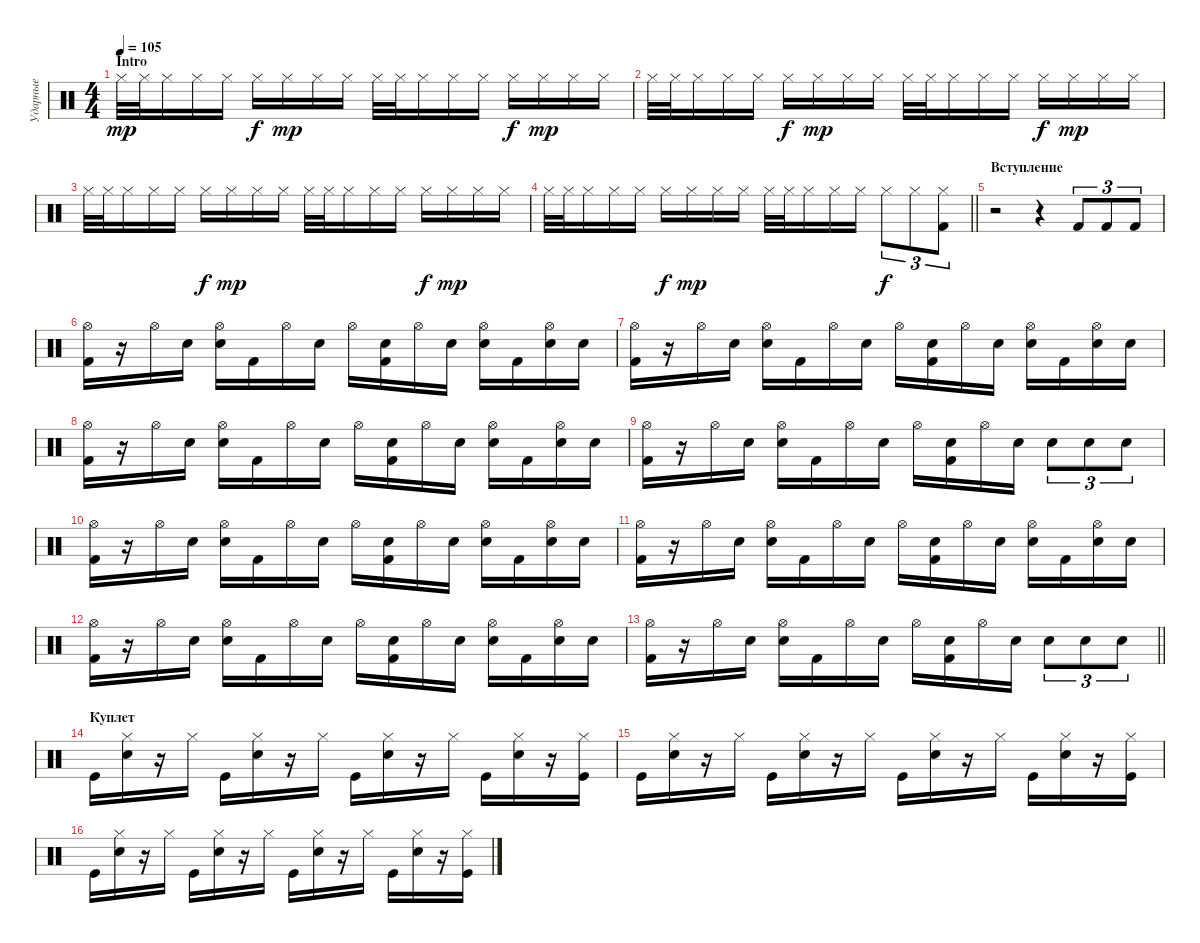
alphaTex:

\track ("Ударные" "Ударные") {instrument percussion}
\staff {score}
\articulation defaults
\ts (4 4)
\section ("" "Intro")
\tempo 105
\clef neutral
\ks c "Hi-Hat (closed)".32{dy mp} "Hi-Hat (closed)".32 "Hi-Hat (closed)".16 "Hi-Hat (closed)".16 "Hi-Hat (closed)".16 "Hi-Hat (closed)".16{dy f} "Hi-Hat (closed)".16{dy mp} "Hi-Hat (closed)".16 "Hi-Hat (closed)".16 "Hi-Hat (closed)".32 "Hi-Hat (closed)".32 "Hi-Hat (closed)".16 "Hi-Hat (closed)".16 "Hi-Hat (closed)".16 "Hi-Hat (closed)".16{dy f} "Hi-Hat (closed)".16{dy mp} "Hi-Hat (closed)".16 "Hi-Hat (closed)".16
|
"Hi-Hat (closed)".32 "Hi-Hat (closed)".32 "Hi-Hat (closed)".16 "Hi-Hat (closed)".16 "Hi-Hat (closed)".16 "Hi-Hat (closed)".16{dy f} "Hi-Hat (closed)".16{dy mp} "Hi-Hat (closed)".16 "Hi-Hat (closed)".16 "Hi-Hat (closed)".32 "Hi-Hat (closed)".32 "Hi-Hat (closed)".16 "Hi-Hat (closed)".16 "Hi-Hat (closed)".16 "Hi-Hat (closed)".16{dy f} "Hi-Hat (closed)".16{dy mp} "Hi-Hat (closed)".16 "Hi-Hat (closed)".16 |
"Hi-Hat (closed)".32 "Hi-Hat (closed)".32 "Hi-Hat (closed)".16 "Hi-Hat (closed)".16 "Hi-Hat (closed)".16 "Hi-Hat (closed)".16{dy f} "Hi-Hat (closed)".16{dy mp} "Hi-Hat (closed)".16 "Hi-Hat (closed)".16 "Hi-Hat (closed)".32 "Hi-Hat (closed)".32 "Hi-Hat (closed)".16 "Hi-Hat (closed)".16 "Hi-Hat (closed)".16 "Hi-Hat (closed)".16{dy f} "Hi-Hat (closed)".16{dy mp} "Hi-Hat (closed)".16 "Hi-Hat (closed)".16 |
\barLineRight lightlight "Hi-Hat (closed)".32 "Hi-Hat (closed)".32 "Hi-Hat (closed)".16 "Hi-Hat (closed)".16 "Hi-Hat (closed)".16 "Hi-Hat (closed)".16{dy f} "Hi-Hat (closed)".16{dy mp} "Hi-Hat (closed)".16 "Hi-Hat (closed)".16 "Hi-Hat (closed)".32 "Hi-Hat (closed)".32 "Hi-Hat (closed)".16 "Hi-Hat (closed)".16 "Hi-Hat (closed)".16 "Hi-Hat (closed)".8{tu (3 2) dy f} "Hi-Hat (closed)".8{tu (3 2)}
("Hi-Hat (closed)" "Kick (hit) 2").8{tu (3 2)} |
\section ("" "Вступление")
r.2 r.4 "Kick (hit) 2".8{tu (3 2)} "Kick (hit) 2".8{tu (3 2)} "Kick (hit) 2".8{tu (3 2)} |
("Hi-Hat (open)" "Kick (hit) 2").16 r.16 "Hi-Hat (open)".16 "Electric Snare (hit)".16 ("Hi-Hat (open)" "Electric Snare (hit)").16 "Kick (hit) 2".16 "Hi-Hat (open)".16 "Electric Snare (hit)".16 "Hi-Hat (open)".16 ("Electric Snare (hit)" "Kick (hit) 2").16 "Hi-Hat (open)".16 "Electric Snare (hit)".16 ("Hi-Hat (open)" "Electric Snare (hit)").16 "Kick (hit) 2".16 ("Hi-Hat (open)" "Electric Snare (hit)").16 "Electric Snare (hit)".16 |
("Hi-Hat (open)" "Kick (hit) 2").16 r.16 "Hi-Hat (open)".16 "Electric Snare (hit)".16 ("Hi-Hat (open)" "Electric Snare (hit)").16 "Kick (hit) 2".16 "Hi-Hat (open)".16 "Electric Snare (hit)".16 "Hi-Hat (open)".16 ("Electric Snare (hit)" "Kick (hit) 2").16 "Hi-Hat (open)".16 "Electric Snare (hit)".16 ("Hi-Hat (open)" "Electric Snare (hit)").16 "Kick (hit) 2".16 ("Hi-Hat (open)" "Electric Snare (hit)").16 "Electric Snare (hit)".16 |
("Hi-Hat (open)" "Kick (hit) 2").16 r.16 "Hi-Hat (open)".16 "Electric Snare (hit)".16 ("Hi-Hat (open)" "Electric Snare (hit)").16 "Kick (hit) 2".16 "Hi-Hat (open)".16 "Electric Snare (hit)".16 "Hi-Hat (open)".16 ("Electric Snare (hit)" "Kick (hit) 2").16 "Hi-Hat (open)".16 "Electric Snare (hit)".16 ("Hi-Hat (open)" "Electric Snare (hit)").16 "Kick (hit) 2".16 ("Hi-Hat (open)" "Electric Snare (hit)").16 "Electric Snare (hit)".16 |
("Hi-Hat (open)" "Kick (hit) 2").16 r.16 "Hi-Hat (open)".16 "Electric Snare (hit)".16 ("Hi-Hat (open)" "Electric Snare (hit)").16 "Kick (hit) 2".16 "Hi-Hat (open)".16 "Electric Snare (hit)".16 "Hi-Hat (open)".16 ("Electric Snare (hit)" "Kick (hit) 2").16 "Hi-Hat (open)".16 "Electric Snare (hit)".16 "Electric Snare (hit)".8{tu (3 2)} "Electric Snare (hit)".8{tu (3 2)} "Electric Snare (hit)".8{tu (3 2)} |
("Hi-Hat (open)" "Kick (hit) 2").16 r.16 "Hi-Hat (open)".16 "Electric Snare (hit)".16 ("Hi-Hat (open)" "Electric Snare (hit)").16 "Kick (hit) 2".16 "Hi-Hat (open)".16 "Electric Snare (hit)".16 "Hi-Hat (open)".16 ("Electric Snare (hit)" "Kick (hit) 2").16 "Hi-Hat (open)".16 "Electric Snare (hit)".16 ("Hi-Hat (open)" "Electric Snare (hit)").16 "Kick (hit) 2".16 ("Hi-Hat (open)" "Electric Snare (hit)").16 "Electric Snare (hit)".16 |
("Hi-Hat (open)" "Kick (hit) 2").16 r.16 "Hi-Hat (open)".16 "Electric Snare (hit)".16 ("Hi-Hat (open)" "Electric Snare (hit)").16 "Kick (hit) 2".16 "Hi-Hat (open)".16 "Electric Snare (hit)".16 "Hi-Hat (open)".16 ("Electric Snare (hit)" "Kick (hit) 2").16 "Hi-Hat (open)".16 "Electric Snare (hit)".16 ("Hi-Hat (open)" "Electric Snare (hit)").16 "Kick (hit) 2".16 ("Hi-Hat (open)" "Electric Snare (hit)").16 "Electric Snare (hit)".16 |
("Hi-Hat (open)" "Kick (hit) 2").16 r.16 "Hi-Hat (open)".16 "Electric Snare (hit)".16 ("Hi-Hat (open)" "Electric Snare (hit)").16 "Kick (hit) 2".16 "Hi-Hat (open)".16 "Electric Snare (hit)".16 "Hi-Hat (open)".16 ("Electric Snare (hit)" "Kick (hit) 2").16 "Hi-Hat (open)".16 "Electric Snare (hit)".16 ("Hi-Hat (open)" "Electric Snare (hit)").16 "Kick (hit) 2".16 ("Hi-Hat (open)" "Electric Snare (hit)").16 "Electric Snare (hit)".16 |
\barLineRight lightlight
("Hi-Hat (open)" "Kick (hit) 2").16 r.16 "Hi-Hat (open)".16 "Electric Snare (hit)".16 ("Hi-Hat (open)" "Electric Snare (hit)").16 "Kick (hit) 2".16 "Hi-Hat (open)".16 "Electric Snare (hit)".16 "Hi-Hat (open)".16 ("Electric Snare (hit)" "Kick (hit) 2").16 "Hi-Hat (open)".16 "Electric Snare (hit)".16 "Electric Snare (hit)".8{tu (3 2)} "Electric Snare (hit)".8{tu (3 2)} "Electric Snare (hit)".8{tu (3 2)} |
\section ("" "Куплет")
"Kick (hit)".16 ("Hi-Hat (closed)" "Electric Snare (hit)").16 r.16 "Hi-Hat (closed)".16 "Kick (hit)".16 ("Hi-Hat (closed)" "Electric Snare (hit)").16 r.16 "Hi-Hat (closed)".16 "Kick (hit)".16 ("Hi-Hat (closed)" "Electric Snare (hit)").16 r.16 "Hi-Hat (closed)".16 "Kick (hit)".16 ("Hi-Hat (closed)" "Electric Snare (hit)").16 r.16 ("Hi-Hat (closed)" "Kick (hit)").16 |
"Kick (hit)".16 ("Hi-Hat (closed)" "Electric Snare (hit)").16 r.16 "Hi-Hat (closed)".16 "Kick (hit)".16 ("Hi-Hat (closed)" "Electric Snare (hit)").16 r.16 "Hi-Hat (closed)".16 "Kick (hit)".16 ("Hi-Hat (closed)" "Electric Snare (hit)").16 r.16 "Hi-Hat (closed)".16 "Kick (hit)".16 ("Hi-Hat (closed)" "Electric Snare (hit)").16 r.16 ("Hi-Hat (closed)" "Kick (hit)").16 |
"Kick (hit)".16 ("Hi-Hat (closed)" "Electric Snare (hit)").16 r.16 "Hi-Hat (closed)".16 "Kick (hit)".16 ("Hi-Hat (closed)" "Electric Snare (hit)").16 r.16 "Hi-Hat (closed)".16 "Kick (hit)".16 ("Hi-Hat (closed)" "Electric Snare (hit)").16 r.16 "Hi-Hat (closed)".16 "Kick (hit)".16 ("Hi-Hat (closed)" "Electric Snare (hit)").16 r.16 ("Hi-Hat (closed)" "Kick (hit)").16
